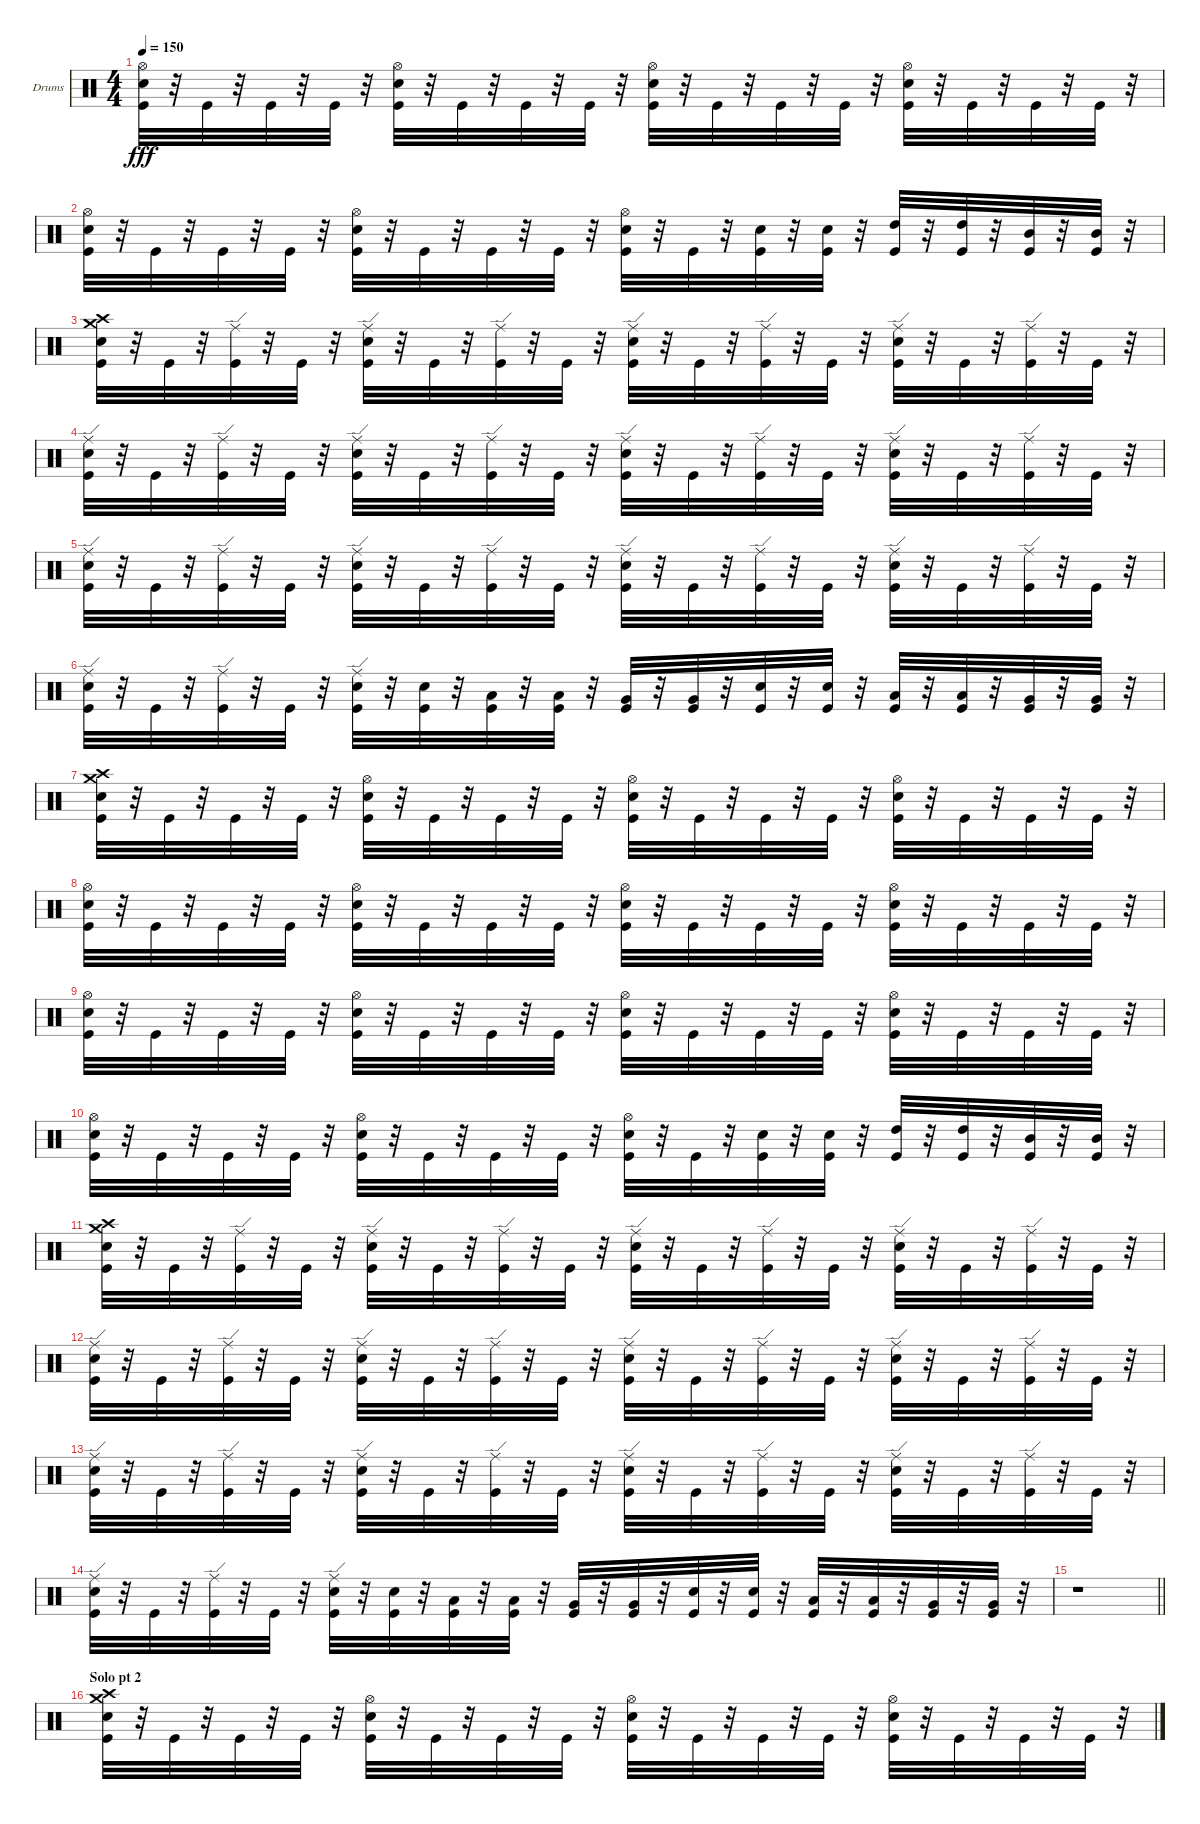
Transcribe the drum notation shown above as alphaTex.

\bracketExtendMode groupsimilarinstruments
\firstSystemTrackNameOrientation horizontal
\otherSystemsTrackNameOrientation horizontal
\track ("Dave McClain" "Drums") {mute instrument percussion}
\staff {score}
\articulation defaults
\ts (4 4)
\tempo 150
\clef neutral
\ks c
("Hi-Hat (open)" "Snare (hit) 2" "Kick (hit)").32{dy fff} r.32 "Kick (hit)".32 r.32 "Kick (hit)".32 r.32 "Kick (hit)".32 r.32 ("Hi-Hat (open)" "Snare (hit) 2" "Kick (hit)").32 r.32 "Kick (hit)".32 r.32 "Kick (hit)".32 r.32 "Kick (hit)".32 r.32 ("Hi-Hat (open)" "Snare (hit) 2" "Kick (hit)").32 r.32 "Kick (hit)".32 r.32 "Kick (hit)".32 r.32 "Kick (hit)".32 r.32 ("Hi-Hat (open)" "Snare (hit) 2" "Kick (hit)").32 r.32 "Kick (hit)".32 r.32 "Kick (hit)".32 r.32 "Kick (hit)".32 r.32 |
("Hi-Hat (open)" "Snare (hit) 2" "Kick (hit)").32 r.32 "Kick (hit)".32 r.32 "Kick (hit)".32 r.32 "Kick (hit)".32 r.32 ("Hi-Hat (open)" "Snare (hit) 2" "Kick (hit)").32 r.32 "Kick (hit)".32 r.32 "Kick (hit)".32 r.32 "Kick (hit)".32 r.32 ("Hi-Hat (open)" "Snare (hit) 2" "Kick (hit)").32 r.32 "Kick (hit)".32 r.32 ("Snare (hit) 2" "Kick (hit)").32 r.32 ("Snare (hit) 2" "Kick (hit)").32 r.32 ("High Tom (hit)" "Kick (hit)").32 r.32 ("High Tom (hit)" "Kick (hit)").32 r.32 ("Mid Tom (hit)" "Kick (hit)").32 r.32 ("Mid Tom (hit)" "Kick (hit)").32 r.32 |
("Crash medium (hit)" "Crash high (hit)" "Snare (hit) 2" "Kick (hit)").32 r.32 "Kick (hit)".32 r.32 ("Ride (edge)" "Kick (hit)").32 r.32 "Kick (hit)".32 r.32 ("Ride (edge)" "Snare (hit) 2" "Kick (hit)").32 r.32 "Kick (hit)".32 r.32 ("Ride (edge)" "Kick (hit)").32 r.32 "Kick (hit)".32 r.32 ("Ride (edge)" "Snare (hit) 2" "Kick (hit)").32 r.32 "Kick (hit)".32 r.32 ("Ride (edge)" "Kick (hit)").32 r.32 "Kick (hit)".32 r.32 ("Ride (edge)" "Snare (hit) 2" "Kick (hit)").32 r.32 "Kick (hit)".32 r.32 ("Ride (edge)" "Kick (hit)").32 r.32 "Kick (hit)".32 r.32 |
("Ride (edge)" "Snare (hit) 2" "Kick (hit)").32 r.32 "Kick (hit)".32 r.32 ("Ride (edge)" "Kick (hit)").32 r.32 "Kick (hit)".32 r.32 ("Ride (edge)" "Snare (hit) 2" "Kick (hit)").32 r.32 "Kick (hit)".32 r.32 ("Ride (edge)" "Kick (hit)").32 r.32 "Kick (hit)".32 r.32 ("Ride (edge)" "Snare (hit) 2" "Kick (hit)").32 r.32 "Kick (hit)".32 r.32 ("Ride (edge)" "Kick (hit)").32 r.32 "Kick (hit)".32 r.32 ("Ride (edge)" "Snare (hit) 2" "Kick (hit)").32 r.32 "Kick (hit)".32 r.32 ("Ride (edge)" "Kick (hit)").32 r.32 "Kick (hit)".32 r.32 |
("Ride (edge)" "Snare (hit) 2" "Kick (hit)").32 r.32 "Kick (hit)".32 r.32 ("Ride (edge)" "Kick (hit)").32 r.32 "Kick (hit)".32 r.32 ("Ride (edge)" "Snare (hit) 2" "Kick (hit)").32 r.32 "Kick (hit)".32 r.32 ("Ride (edge)" "Kick (hit)").32 r.32 "Kick (hit)".32 r.32 ("Ride (edge)" "Snare (hit) 2" "Kick (hit)").32 r.32 "Kick (hit)".32 r.32 ("Ride (edge)" "Kick (hit)").32 r.32 "Kick (hit)".32 r.32 ("Ride (edge)" "Snare (hit) 2" "Kick (hit)").32 r.32 "Kick (hit)".32 r.32 ("Ride (edge)" "Kick (hit)").32 r.32 "Kick (hit)".32 r.32 |
("Ride (edge)" "Snare (hit) 2" "Kick (hit)").32 r.32 "Kick (hit)".32 r.32 ("Ride (edge)" "Kick (hit)").32 r.32 "Kick (hit)".32 r.32 ("Ride (edge)" "Snare (hit) 2" "Kick (hit)").32 r.32 ("Snare (hit) 2" "Kick (hit)").32 r.32 ("Low Tom (hit)" "Kick (hit)").32 r.32 ("Low Tom (hit)" "Kick (hit)").32 r.32 ("Very Low Tom (hit)" "Kick (hit)").32 r.32 ("Very Low Tom (hit)" "Kick (hit)").32 r.32 ("Snare (hit) 2" "Kick (hit)").32 r.32 ("Snare (hit) 2" "Kick (hit)").32 r.32 ("Low Tom (hit)" "Kick (hit)").32 r.32 ("Low Tom (hit)" "Kick (hit)").32 r.32 ("Very Low Tom (hit)" "Kick (hit)").32 r.32 ("Very Low Tom (hit)" "Kick (hit)").32 r.32 |
("Crash medium (hit)" "Crash high (hit)" "Snare (hit) 2" "Kick (hit)").32 r.32 "Kick (hit)".32 r.32 "Kick (hit)".32 r.32 "Kick (hit)".32 r.32 ("Hi-Hat (open)" "Snare (hit) 2" "Kick (hit)").32 r.32 "Kick (hit)".32 r.32 "Kick (hit)".32 r.32 "Kick (hit)".32 r.32 ("Hi-Hat (open)" "Snare (hit) 2" "Kick (hit)").32 r.32 "Kick (hit)".32 r.32 "Kick (hit)".32 r.32 "Kick (hit)".32 r.32 ("Hi-Hat (open)" "Snare (hit) 2" "Kick (hit)").32 r.32 "Kick (hit)".32 r.32 "Kick (hit)".32 r.32 "Kick (hit)".32 r.32 |
("Hi-Hat (open)" "Snare (hit) 2" "Kick (hit)").32 r.32 "Kick (hit)".32 r.32 "Kick (hit)".32 r.32 "Kick (hit)".32 r.32 ("Hi-Hat (open)" "Snare (hit) 2" "Kick (hit)").32 r.32 "Kick (hit)".32 r.32 "Kick (hit)".32 r.32 "Kick (hit)".32 r.32 ("Hi-Hat (open)" "Snare (hit) 2" "Kick (hit)").32 r.32 "Kick (hit)".32 r.32 "Kick (hit)".32 r.32 "Kick (hit)".32 r.32 ("Hi-Hat (open)" "Snare (hit) 2" "Kick (hit)").32 r.32 "Kick (hit)".32 r.32 "Kick (hit)".32 r.32 "Kick (hit)".32 r.32 |
("Hi-Hat (open)" "Snare (hit) 2" "Kick (hit)").32 r.32 "Kick (hit)".32 r.32 "Kick (hit)".32 r.32 "Kick (hit)".32 r.32 ("Hi-Hat (open)" "Snare (hit) 2" "Kick (hit)").32 r.32 "Kick (hit)".32 r.32 "Kick (hit)".32 r.32 "Kick (hit)".32 r.32 ("Hi-Hat (open)" "Snare (hit) 2" "Kick (hit)").32 r.32 "Kick (hit)".32 r.32 "Kick (hit)".32 r.32 "Kick (hit)".32 r.32 ("Hi-Hat (open)" "Snare (hit) 2" "Kick (hit)").32 r.32 "Kick (hit)".32 r.32 "Kick (hit)".32 r.32 "Kick (hit)".32 r.32 |
("Hi-Hat (open)" "Snare (hit) 2" "Kick (hit)").32 r.32 "Kick (hit)".32 r.32 "Kick (hit)".32 r.32 "Kick (hit)".32 r.32 ("Hi-Hat (open)" "Snare (hit) 2" "Kick (hit)").32 r.32 "Kick (hit)".32 r.32 "Kick (hit)".32 r.32 "Kick (hit)".32 r.32 ("Hi-Hat (open)" "Snare (hit) 2" "Kick (hit)").32 r.32 "Kick (hit)".32 r.32 ("Snare (hit) 2" "Kick (hit)").32 r.32 ("Snare (hit) 2" "Kick (hit)").32 r.32 ("High Tom (hit)" "Kick (hit)").32 r.32 ("High Tom (hit)" "Kick (hit)").32 r.32 ("Mid Tom (hit)" "Kick (hit)").32 r.32 ("Mid Tom (hit)" "Kick (hit)").32 r.32 |
("Crash medium (hit)" "Crash high (hit)" "Snare (hit) 2" "Kick (hit)").32 r.32 "Kick (hit)".32 r.32 ("Ride (edge)" "Kick (hit)").32 r.32 "Kick (hit)".32 r.32 ("Ride (edge)" "Snare (hit) 2" "Kick (hit)").32 r.32 "Kick (hit)".32 r.32 ("Ride (edge)" "Kick (hit)").32 r.32 "Kick (hit)".32 r.32 ("Ride (edge)" "Snare (hit) 2" "Kick (hit)").32 r.32 "Kick (hit)".32 r.32 ("Ride (edge)" "Kick (hit)").32 r.32 "Kick (hit)".32 r.32 ("Ride (edge)" "Snare (hit) 2" "Kick (hit)").32 r.32 "Kick (hit)".32 r.32 ("Ride (edge)" "Kick (hit)").32 r.32 "Kick (hit)".32 r.32 |
("Ride (edge)" "Snare (hit) 2" "Kick (hit)").32 r.32 "Kick (hit)".32 r.32 ("Ride (edge)" "Kick (hit)").32 r.32 "Kick (hit)".32 r.32 ("Ride (edge)" "Snare (hit) 2" "Kick (hit)").32 r.32 "Kick (hit)".32 r.32 ("Ride (edge)" "Kick (hit)").32 r.32 "Kick (hit)".32 r.32 ("Ride (edge)" "Snare (hit) 2" "Kick (hit)").32 r.32 "Kick (hit)".32 r.32 ("Ride (edge)" "Kick (hit)").32 r.32 "Kick (hit)".32 r.32 ("Ride (edge)" "Snare (hit) 2" "Kick (hit)").32 r.32 "Kick (hit)".32 r.32 ("Ride (edge)" "Kick (hit)").32 r.32 "Kick (hit)".32 r.32 |
("Ride (edge)" "Snare (hit) 2" "Kick (hit)").32 r.32 "Kick (hit)".32 r.32 ("Ride (edge)" "Kick (hit)").32 r.32 "Kick (hit)".32 r.32 ("Ride (edge)" "Snare (hit) 2" "Kick (hit)").32 r.32 "Kick (hit)".32 r.32 ("Ride (edge)" "Kick (hit)").32 r.32 "Kick (hit)".32 r.32 ("Ride (edge)" "Snare (hit) 2" "Kick (hit)").32 r.32 "Kick (hit)".32 r.32 ("Ride (edge)" "Kick (hit)").32 r.32 "Kick (hit)".32 r.32 ("Ride (edge)" "Snare (hit) 2" "Kick (hit)").32 r.32 "Kick (hit)".32 r.32 ("Ride (edge)" "Kick (hit)").32 r.32 "Kick (hit)".32 r.32 |
("Ride (edge)" "Snare (hit) 2" "Kick (hit)").32 r.32 "Kick (hit)".32 r.32 ("Ride (edge)" "Kick (hit)").32 r.32 "Kick (hit)".32 r.32 ("Ride (edge)" "Snare (hit) 2" "Kick (hit)").32 r.32 ("Snare (hit) 2" "Kick (hit)").32 r.32 ("Low Tom (hit)" "Kick (hit)").32 r.32 ("Low Tom (hit)" "Kick (hit)").32 r.32 ("Very Low Tom (hit)" "Kick (hit)").32 r.32 ("Very Low Tom (hit)" "Kick (hit)").32 r.32 ("Snare (hit) 2" "Kick (hit)").32 r.32 ("Snare (hit) 2" "Kick (hit)").32 r.32 ("Low Tom (hit)" "Kick (hit)").32 r.32 ("Low Tom (hit)" "Kick (hit)").32 r.32 ("Very Low Tom (hit)" "Kick (hit)").32 r.32 ("Very Low Tom (hit)" "Kick (hit)").32 r.32 |
\barLineRight lightlight
r.1 |
\section ("" "Solo pt 2")
("Snare (hit) 2" "Crash medium (hit)" "Crash high (hit)" "Kick (hit)").32 r.32 "Kick (hit)".32 r.32 "Kick (hit)".32 r.32 "Kick (hit)".32 r.32 ("Hi-Hat (open)" "Snare (hit) 2" "Kick (hit)").32 r.32 "Kick (hit)".32 r.32 "Kick (hit)".32 r.32 "Kick (hit)".32 r.32 ("Hi-Hat (open)" "Snare (hit) 2" "Kick (hit)").32 r.32 "Kick (hit)".32 r.32 "Kick (hit)".32 r.32 "Kick (hit)".32 r.32 ("Hi-Hat (open)" "Snare (hit) 2" "Kick (hit)").32 r.32 "Kick (hit)".32 r.32 "Kick (hit)".32 r.32 "Kick (hit)".32 r.32
